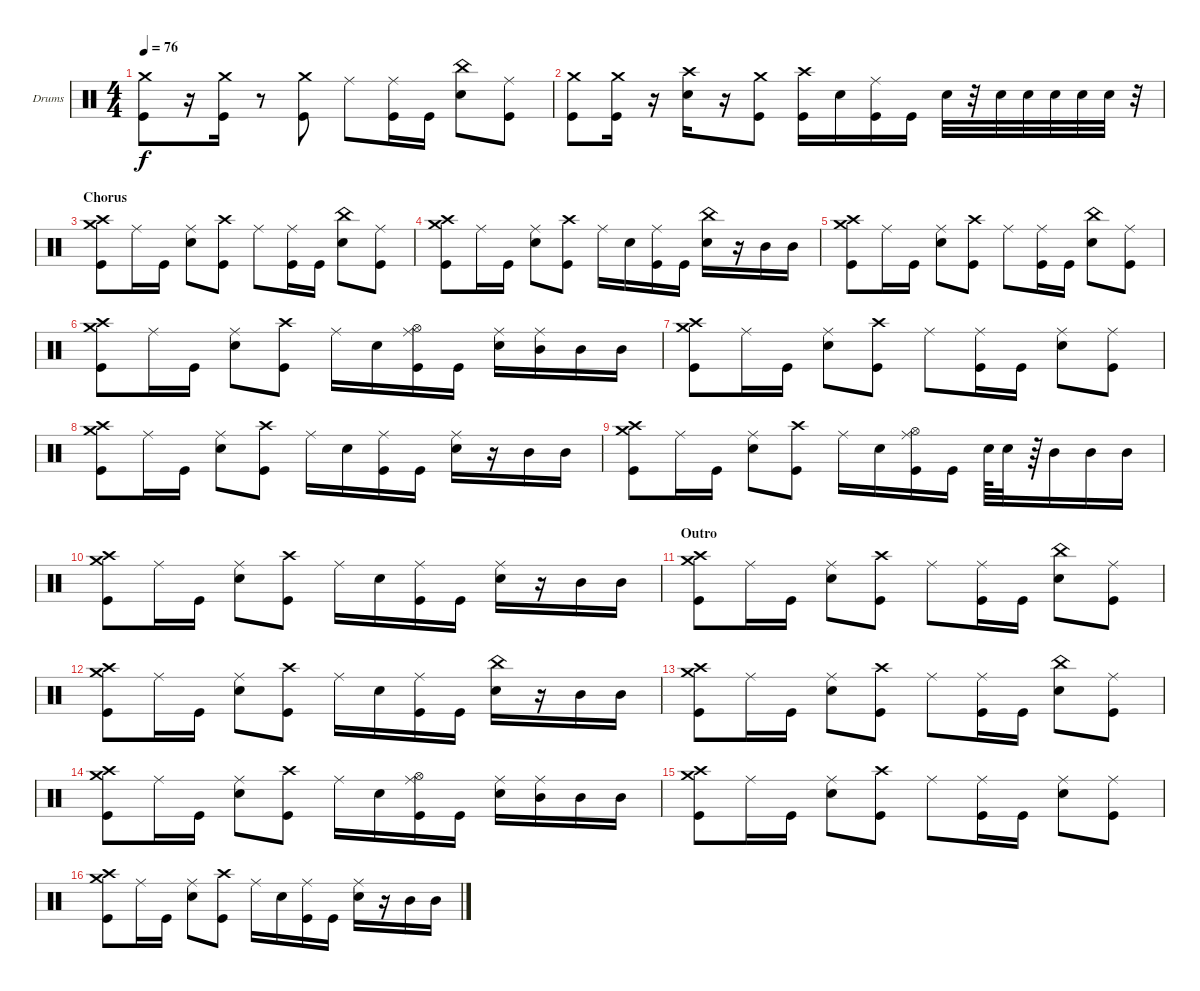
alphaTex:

\defaultSystemsLayout 4
\bracketExtendMode nobrackets
\firstSystemTrackNameOrientation horizontal
\otherSystemsTrackNameOrientation horizontal
\track ("Dave Abbruzzese" "Drums") {solo instrument percussion}
\staff {score}
\articulation defaults
\ts (4 4)
\tempo 76
\clef neutral
\ks c
("Kick (hit)" "Crash medium (hit)").8{dy f} r.16 ("Kick (hit)" "Crash medium (hit)").16 r.8 ("Kick (hit)" "Crash medium (hit)").8 "Ride (middle)".8 ("Kick (hit)" "Ride (middle)").16 "Kick (hit)".16 ("Snare (hit) 2" "China (hit)").8 ("Kick (hit)" "Ride (middle)").8 |
("Kick (hit)" "Crash medium (hit)").8 ("Kick (hit)" "Crash medium (hit)").16 r.16 ("Snare (hit) 2" "Crash high (hit)").16 r.16 ("Kick (hit)" "Crash medium (hit)").8 ("Kick (hit)" "Crash high (hit)").16 "Snare (hit) 2".16 ("Kick (hit)" "Ride (middle)").16 "Kick (hit)".16 "Snare (hit) 2".32 r.32 "Snare (hit) 2".32 "Snare (hit) 2".32 "Snare (hit) 2".32 "Snare (hit) 2".32 "Snare (hit) 2".32 r.32 |
\section ("" "Chorus")
("Crash high (hit)" "Kick (hit)" "Crash medium (hit)").8 "Ride (middle)".16 "Kick (hit)".16 ("Snare (hit) 2" "Ride (middle)").8 ("Kick (hit)" "Crash high (hit)").8 "Ride (middle)".8 ("Kick (hit)" "Ride (middle)").16 "Kick (hit)".16 ("Snare (hit) 2" "China (hit)").8 ("Kick (hit)" "Ride (middle)").8 |
("Crash high (hit)" "Kick (hit)" "Crash medium (hit)").8 "Ride (middle)".16 "Kick (hit)".16 ("Snare (hit) 2" "Ride (middle)").8 ("Kick (hit)" "Crash high (hit)").8 "Ride (middle)".16 "Snare (hit) 2".16 ("Kick (hit)" "Ride (middle)").16 "Kick (hit)".16 ("Snare (hit) 2" "China (hit)").16 r.16 "Mid Tom (hit)".16 "Mid Tom (hit)".16 |
("Crash high (hit)" "Kick (hit)" "Crash medium (hit)").8 "Ride (middle)".16 "Kick (hit)".16 ("Snare (hit) 2" "Ride (middle)").8 ("Kick (hit)" "Crash high (hit)").8 "Ride (middle)".8 ("Kick (hit)" "Ride (middle)").16 "Kick (hit)".16 ("Snare (hit) 2" "China (hit)").8 ("Kick (hit)" "Ride (middle)").8 |
("Crash high (hit)" "Kick (hit)" "Crash medium (hit)").8 "Ride (middle)".16 "Kick (hit)".16 ("Snare (hit) 2" "Ride (middle)").8 ("Kick (hit)" "Crash high (hit)").8 "Ride (middle)".16 "Snare (hit) 2".16 ("Hi-Hat (open)" "Kick (hit)" "Ride (middle)").16 "Kick (hit)".16 ("Snare (hit) 2" "Ride (middle)").16 ("Mid Tom (hit)" "Ride (middle)").16 "Mid Tom (hit)".16 "Mid Tom (hit)".16 |
("Crash high (hit)" "Kick (hit)" "Crash medium (hit)").8 "Ride (middle)".16 "Kick (hit)".16 ("Snare (hit) 2" "Ride (middle)").8 ("Kick (hit)" "Crash high (hit)").8 "Ride (middle)".8 ("Kick (hit)" "Ride (middle)").16 "Kick (hit)".16 ("Snare (hit) 2" "Ride (middle)").8 ("Kick (hit)" "Ride (middle)").8 |
("Crash high (hit)" "Kick (hit)" "Crash medium (hit)").8 "Ride (middle)".16 "Kick (hit)".16 ("Snare (hit) 2" "Ride (middle)").8 ("Kick (hit)" "Crash high (hit)").8 "Ride (middle)".16 "Snare (hit) 2".16 ("Kick (hit)" "Ride (middle)").16 "Kick (hit)".16 ("Snare (hit) 2" "Ride (middle)").16 r.16 "Mid Tom (hit)".16 "Mid Tom (hit)".16 |
("Crash high (hit)" "Kick (hit)" "Crash medium (hit)").8 "Ride (middle)".16 "Kick (hit)".16 ("Snare (hit) 2" "Ride (middle)").8 ("Kick (hit)" "Crash high (hit)").8 "Ride (middle)".16 "Snare (hit) 2".16 ("Hi-Hat (open)" "Kick (hit)" "Ride (middle)").16 "Kick (hit)".16 "Snare (hit) 2".64 "Snare (hit) 2".32 r.64 "Mid Tom (hit)".16 "Mid Tom (hit)".16 "Mid Tom (hit)".16 |
("Crash high (hit)" "Kick (hit)" "Crash medium (hit)").8 "Ride (middle)".16 "Kick (hit)".16 ("Snare (hit) 2" "Ride (middle)").8 ("Kick (hit)" "Crash high (hit)").8 "Ride (middle)".16 "Snare (hit) 2".16 ("Kick (hit)" "Ride (middle)").16 "Kick (hit)".16 ("Snare (hit) 2" "Ride (middle)").16 r.16 "Mid Tom (hit)".16 "Mid Tom (hit)".16 |
\section ("" "Outro")
("Crash high (hit)" "Kick (hit)" "Crash medium (hit)").8 "Ride (middle)".16 "Kick (hit)".16 ("Snare (hit) 2" "Ride (middle)").8 ("Kick (hit)" "Crash high (hit)").8 "Ride (middle)".8 ("Kick (hit)" "Ride (middle)").16 "Kick (hit)".16 ("Snare (hit) 2" "China (hit)").8 ("Kick (hit)" "Ride (middle)").8 |
("Crash high (hit)" "Kick (hit)" "Crash medium (hit)").8 "Ride (middle)".16 "Kick (hit)".16 ("Snare (hit) 2" "Ride (middle)").8 ("Kick (hit)" "Crash high (hit)").8 "Ride (middle)".16 "Snare (hit) 2".16 ("Kick (hit)" "Ride (middle)").16 "Kick (hit)".16 ("Snare (hit) 2" "China (hit)").16 r.16 "Mid Tom (hit)".16 "Mid Tom (hit)".16 |
("Crash high (hit)" "Kick (hit)" "Crash medium (hit)").8 "Ride (middle)".16 "Kick (hit)".16 ("Snare (hit) 2" "Ride (middle)").8 ("Kick (hit)" "Crash high (hit)").8 "Ride (middle)".8 ("Kick (hit)" "Ride (middle)").16 "Kick (hit)".16 ("Snare (hit) 2" "China (hit)").8 ("Kick (hit)" "Ride (middle)").8 |
("Crash high (hit)" "Kick (hit)" "Crash medium (hit)").8 "Ride (middle)".16 "Kick (hit)".16 ("Snare (hit) 2" "Ride (middle)").8 ("Kick (hit)" "Crash high (hit)").8 "Ride (middle)".16 "Snare (hit) 2".16 ("Hi-Hat (open)" "Kick (hit)" "Ride (middle)").16 "Kick (hit)".16 ("Snare (hit) 2" "Ride (middle)").16 ("Mid Tom (hit)" "Ride (middle)").16 "Mid Tom (hit)".16 "Mid Tom (hit)".16 |
("Crash high (hit)" "Kick (hit)" "Crash medium (hit)").8 "Ride (middle)".16 "Kick (hit)".16 ("Snare (hit) 2" "Ride (middle)").8 ("Kick (hit)" "Crash high (hit)").8 "Ride (middle)".8 ("Kick (hit)" "Ride (middle)").16 "Kick (hit)".16 ("Snare (hit) 2" "Ride (middle)").8 ("Kick (hit)" "Ride (middle)").8 |
("Crash high (hit)" "Kick (hit)" "Crash medium (hit)").8 "Ride (middle)".16 "Kick (hit)".16 ("Snare (hit) 2" "Ride (middle)").8 ("Kick (hit)" "Crash high (hit)").8 "Ride (middle)".16 "Snare (hit) 2".16 ("Kick (hit)" "Ride (middle)").16 "Kick (hit)".16 ("Snare (hit) 2" "Ride (middle)").16 r.16 "Mid Tom (hit)".16 "Mid Tom (hit)".16
